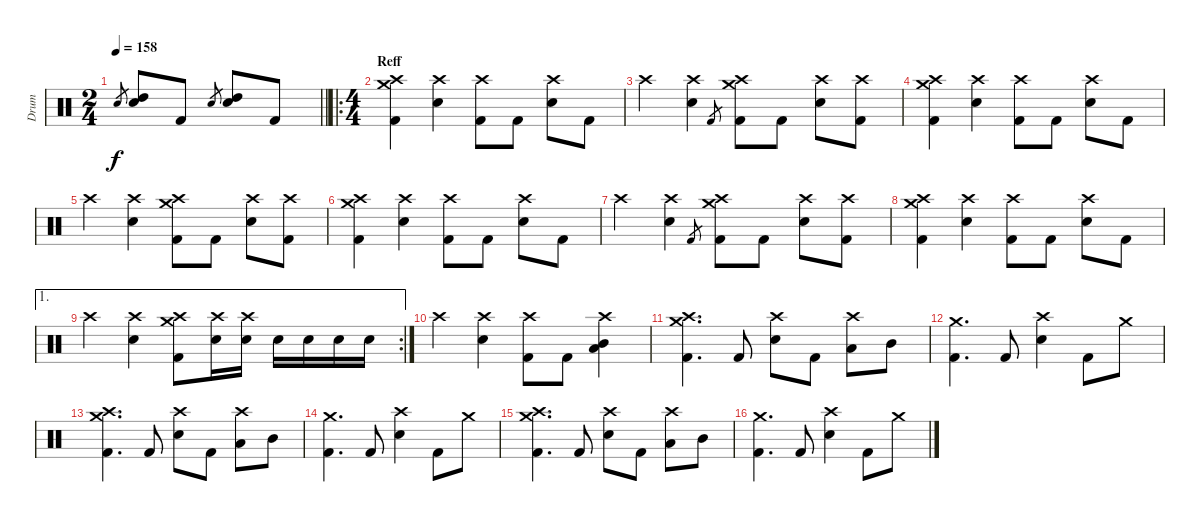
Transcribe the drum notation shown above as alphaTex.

\track ("Drum" "Drum") {instrument percussion}
\staff {score}
\articulation defaults
\ts (2 4)
\tempo 158
\clef neutral
\barLineRight lightlight
\ks c "Electric Snare (hit)".8{gr dy f}
("High Tom (hit)" "Electric Snare (hit)").8 "Kick (hit) 2".8 "Electric Snare (hit)".8{gr} ("High Tom (hit)" "Electric Snare (hit)").8 "Kick (hit) 2".8 |
\ro
\ts (4 4)
\section ("" "Reff")
("Crash high (hit)" "Crash medium (hit)" "Kick (hit) 2").4 ("Crash high (hit)" "Electric Snare (hit)").4 ("Crash high (hit)" "Kick (hit) 2").8 "Kick (hit) 2".8 ("Crash high (hit)" "Electric Snare (hit)").8 "Kick (hit) 2".8 |
"Crash high (hit)".4 ("Crash high (hit)" "Electric Snare (hit)").4 "Kick (hit) 2".8{gr} ("Crash high (hit)" "Crash medium (hit)" "Kick (hit) 2").8 "Kick (hit) 2".8 ("Crash high (hit)" "Electric Snare (hit)").8 ("Crash high (hit)" "Kick (hit) 2").8 |
("Crash high (hit)" "Crash medium (hit)" "Kick (hit) 2").4 ("Crash high (hit)" "Electric Snare (hit)").4 ("Crash high (hit)" "Kick (hit) 2").8 "Kick (hit) 2".8 ("Crash high (hit)" "Electric Snare (hit)").8 "Kick (hit) 2".8 |
"Crash high (hit)".4 ("Crash high (hit)" "Electric Snare (hit)").4 ("Crash high (hit)" "Crash medium (hit)" "Kick (hit) 2").8 "Kick (hit) 2".8 ("Crash high (hit)" "Electric Snare (hit)").8 ("Crash high (hit)" "Kick (hit) 2").8 |
("Crash high (hit)" "Crash medium (hit)" "Kick (hit) 2").4 ("Crash high (hit)" "Electric Snare (hit)").4 ("Crash high (hit)" "Kick (hit) 2").8 "Kick (hit) 2".8 ("Crash high (hit)" "Electric Snare (hit)").8 "Kick (hit) 2".8 |
"Crash high (hit)".4 ("Crash high (hit)" "Electric Snare (hit)").4 "Kick (hit) 2".8{gr} ("Crash high (hit)" "Crash medium (hit)" "Kick (hit) 2").8 "Kick (hit) 2".8 ("Crash high (hit)" "Electric Snare (hit)").8 ("Crash high (hit)" "Kick (hit) 2").8 |
("Crash high (hit)" "Crash medium (hit)" "Kick (hit) 2").4 ("Crash high (hit)" "Electric Snare (hit)").4 ("Crash high (hit)" "Kick (hit) 2").8 "Kick (hit) 2".8 ("Crash high (hit)" "Electric Snare (hit)").8 "Kick (hit) 2".8 |
\ae 1
\rc 2 "Crash high (hit)".4
("Crash high (hit)" "Electric Snare (hit)").4 ("Crash high (hit)" "Crash medium (hit)" "Kick (hit) 2").8 ("Crash high (hit)" "Electric Snare (hit)").16 ("Crash high (hit)" "Electric Snare (hit)").16 "Electric Snare (hit)".16 "Electric Snare (hit)".16 "Electric Snare (hit)".16 "Electric Snare (hit)".16 |
"Crash high (hit)".4 ("Crash high (hit)" "Electric Snare (hit)").4 ("Crash high (hit)" "Kick (hit) 2").8 "Kick (hit) 2".8 ("Crash high (hit)" "Mid Tom (hit)" "Low Tom (hit)").4 |
("Crash medium (hit)" "Crash high (hit)" "Kick (hit) 2").4{d} "Kick (hit) 2".8 ("Crash high (hit)" "Electric Snare (hit)").8 "Kick (hit) 2".8 ("Crash high (hit)" "Low Tom (hit)").8 "Mid Tom (hit)".8 |
("Crash medium (hit)" "Kick (hit) 2").4{d} "Kick (hit) 2".8 ("Crash high (hit)" "Electric Snare (hit)").4 "Kick (hit) 2".8 "Crash medium (hit)".8 |
("Crash medium (hit)" "Crash high (hit)" "Kick (hit) 2").4{d} "Kick (hit) 2".8 ("Crash high (hit)" "Electric Snare (hit)").8 "Kick (hit) 2".8 ("Crash high (hit)" "Low Tom (hit)").8 "Mid Tom (hit)".8 |
("Crash medium (hit)" "Kick (hit) 2").4{d} "Kick (hit) 2".8 ("Crash high (hit)" "Electric Snare (hit)").4 "Kick (hit) 2".8 "Crash medium (hit)".8 |
("Crash medium (hit)" "Crash high (hit)" "Kick (hit) 2").4{d} "Kick (hit) 2".8 ("Crash high (hit)" "Electric Snare (hit)").8 "Kick (hit) 2".8 ("Crash high (hit)" "Low Tom (hit)").8 "Mid Tom (hit)".8 |
("Crash medium (hit)" "Kick (hit) 2").4{d} "Kick (hit) 2".8 ("Crash high (hit)" "Electric Snare (hit)").4 "Kick (hit) 2".8 "Crash medium (hit)".8
